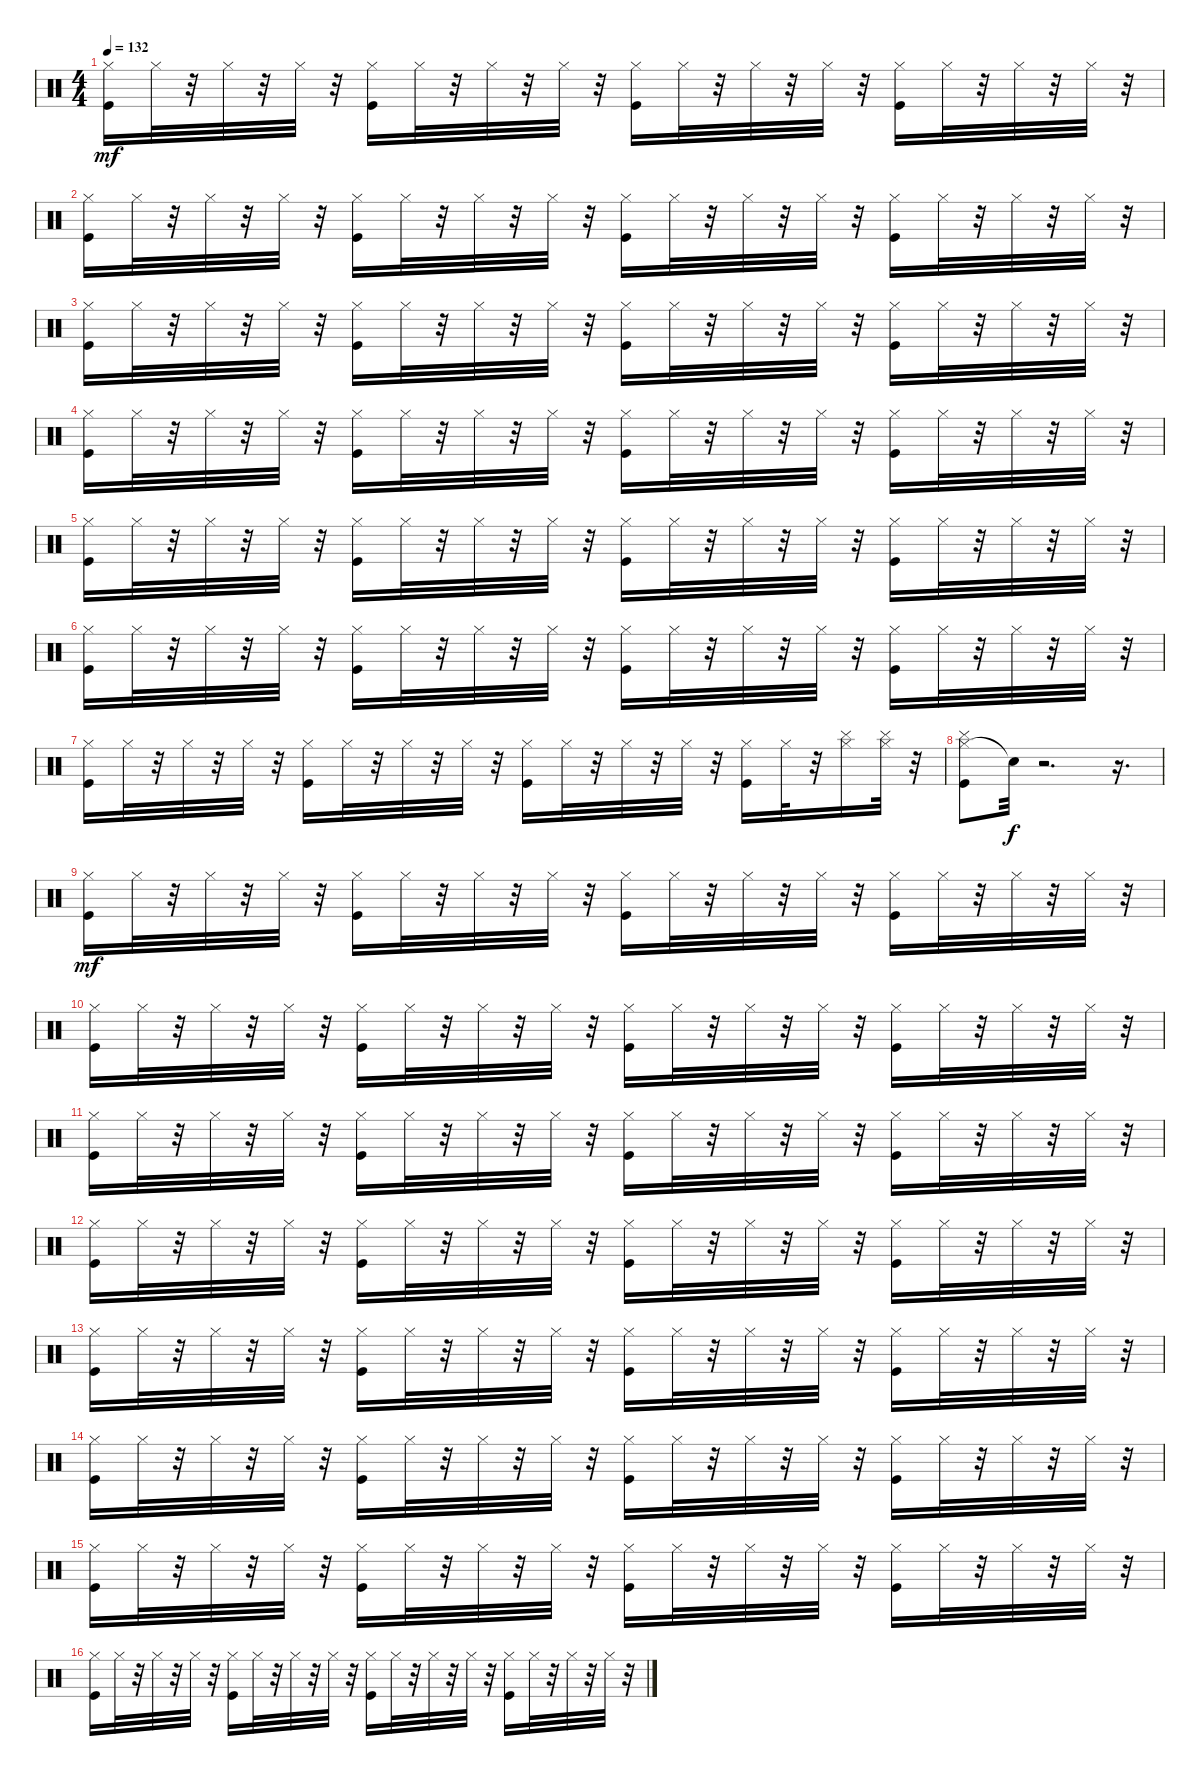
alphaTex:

\track "" {instrument percussion}
\staff {score}
\articulation defaults
\ts (4 4)
\tempo 132
\clef neutral
\ks c
("Hi-Hat (closed)" "Kick (hit)").16{dy mf} "Hi-Hat (closed)".32 r.32 "Hi-Hat (closed)".32 r.32 "Hi-Hat (closed)".32 r.32 ("Hi-Hat (closed)" "Kick (hit)").16 "Hi-Hat (closed)".32 r.32 "Hi-Hat (closed)".32 r.32 "Hi-Hat (closed)".32 r.32 ("Hi-Hat (closed)" "Kick (hit)").16 "Hi-Hat (closed)".32 r.32 "Hi-Hat (closed)".32 r.32 "Hi-Hat (closed)".32 r.32 ("Hi-Hat (closed)" "Kick (hit)").16 "Hi-Hat (closed)".32 r.32 "Hi-Hat (closed)".32 r.32 "Hi-Hat (closed)".32 r.32 |
("Hi-Hat (closed)" "Kick (hit)").16 "Hi-Hat (closed)".32 r.32 "Hi-Hat (closed)".32 r.32 "Hi-Hat (closed)".32 r.32 ("Hi-Hat (closed)" "Kick (hit)").16 "Hi-Hat (closed)".32 r.32 "Hi-Hat (closed)".32 r.32 "Hi-Hat (closed)".32 r.32 ("Hi-Hat (closed)" "Kick (hit)").16 "Hi-Hat (closed)".32 r.32 "Hi-Hat (closed)".32 r.32 "Hi-Hat (closed)".32 r.32 ("Hi-Hat (closed)" "Kick (hit)").16 "Hi-Hat (closed)".32 r.32 "Hi-Hat (closed)".32 r.32 "Hi-Hat (closed)".32 r.32 |
("Hi-Hat (closed)" "Kick (hit)").16 "Hi-Hat (closed)".32 r.32 "Hi-Hat (closed)".32 r.32 "Hi-Hat (closed)".32 r.32 ("Hi-Hat (closed)" "Kick (hit)").16 "Hi-Hat (closed)".32 r.32 "Hi-Hat (closed)".32 r.32 "Hi-Hat (closed)".32 r.32 ("Hi-Hat (closed)" "Kick (hit)").16 "Hi-Hat (closed)".32 r.32 "Hi-Hat (closed)".32 r.32 "Hi-Hat (closed)".32 r.32 ("Hi-Hat (closed)" "Kick (hit)").16 "Hi-Hat (closed)".32 r.32 "Hi-Hat (closed)".32 r.32 "Hi-Hat (closed)".32 r.32 |
("Hi-Hat (closed)" "Kick (hit)").16 "Hi-Hat (closed)".32 r.32 "Hi-Hat (closed)".32 r.32 "Hi-Hat (closed)".32 r.32 ("Hi-Hat (closed)" "Kick (hit)").16 "Hi-Hat (closed)".32 r.32 "Hi-Hat (closed)".32 r.32 "Hi-Hat (closed)".32 r.32 ("Hi-Hat (closed)" "Kick (hit)").16 "Hi-Hat (closed)".32 r.32 "Hi-Hat (closed)".32 r.32 "Hi-Hat (closed)".32 r.32 ("Hi-Hat (closed)" "Kick (hit)").16 "Hi-Hat (closed)".32 r.32 "Hi-Hat (closed)".32 r.32 "Hi-Hat (closed)".32 r.32 |
("Hi-Hat (closed)" "Kick (hit)").16 "Hi-Hat (closed)".32 r.32 "Hi-Hat (closed)".32 r.32 "Hi-Hat (closed)".32 r.32 ("Hi-Hat (closed)" "Kick (hit)").16 "Hi-Hat (closed)".32 r.32 "Hi-Hat (closed)".32 r.32 "Hi-Hat (closed)".32 r.32 ("Hi-Hat (closed)" "Kick (hit)").16 "Hi-Hat (closed)".32 r.32 "Hi-Hat (closed)".32 r.32 "Hi-Hat (closed)".32 r.32 ("Hi-Hat (closed)" "Kick (hit)").16 "Hi-Hat (closed)".32 r.32 "Hi-Hat (closed)".32 r.32 "Hi-Hat (closed)".32 r.32 |
("Hi-Hat (closed)" "Kick (hit)").16 "Hi-Hat (closed)".32 r.32 "Hi-Hat (closed)".32 r.32 "Hi-Hat (closed)".32 r.32 ("Hi-Hat (closed)" "Kick (hit)").16 "Hi-Hat (closed)".32 r.32 "Hi-Hat (closed)".32 r.32 "Hi-Hat (closed)".32 r.32 ("Hi-Hat (closed)" "Kick (hit)").16 "Hi-Hat (closed)".32 r.32 "Hi-Hat (closed)".32 r.32 "Hi-Hat (closed)".32 r.32 ("Hi-Hat (closed)" "Kick (hit)").16 "Hi-Hat (closed)".32 r.32 "Hi-Hat (closed)".32 r.32 "Hi-Hat (closed)".32 r.32 |
("Hi-Hat (closed)" "Kick (hit)").16 "Hi-Hat (closed)".32 r.32 "Hi-Hat (closed)".32 r.32 "Hi-Hat (closed)".32 r.32 ("Hi-Hat (closed)" "Kick (hit)").16 "Hi-Hat (closed)".32 r.32 "Hi-Hat (closed)".32 r.32 "Hi-Hat (closed)".32 r.32 ("Hi-Hat (closed)" "Kick (hit)").16 "Hi-Hat (closed)".32 r.32 "Hi-Hat (closed)".32 r.32 "Hi-Hat (closed)".32 r.32 ("Hi-Hat (closed)" "Kick (hit)").16 "Hi-Hat (closed)".32 r.32 ("Hi-Hat (closed)" "Cymbal (hit)").16 ("Hi-Hat (closed)" "Cymbal (hit)").32 r.32 |
("Hi-Hat (closed)" "Kick (hit)" "Cymbal (hit)").8 "Snare (hit)"{t}.32{dy f} r.2{d} r.16{d} |
("Hi-Hat (closed)" "Kick (hit)").16{dy mf} "Hi-Hat (closed)".32 r.32 "Hi-Hat (closed)".32 r.32 "Hi-Hat (closed)".32 r.32 ("Hi-Hat (closed)" "Kick (hit)").16 "Hi-Hat (closed)".32 r.32 "Hi-Hat (closed)".32 r.32 "Hi-Hat (closed)".32 r.32 ("Hi-Hat (closed)" "Kick (hit)").16 "Hi-Hat (closed)".32 r.32 "Hi-Hat (closed)".32 r.32 "Hi-Hat (closed)".32 r.32 ("Hi-Hat (closed)" "Kick (hit)").16 "Hi-Hat (closed)".32 r.32 "Hi-Hat (closed)".32 r.32 "Hi-Hat (closed)".32 r.32 |
("Hi-Hat (closed)" "Kick (hit)").16 "Hi-Hat (closed)".32 r.32 "Hi-Hat (closed)".32 r.32 "Hi-Hat (closed)".32 r.32 ("Hi-Hat (closed)" "Kick (hit)").16 "Hi-Hat (closed)".32 r.32 "Hi-Hat (closed)".32 r.32 "Hi-Hat (closed)".32 r.32 ("Hi-Hat (closed)" "Kick (hit)").16 "Hi-Hat (closed)".32 r.32 "Hi-Hat (closed)".32 r.32 "Hi-Hat (closed)".32 r.32 ("Hi-Hat (closed)" "Kick (hit)").16 "Hi-Hat (closed)".32 r.32 "Hi-Hat (closed)".32 r.32 "Hi-Hat (closed)".32 r.32 |
("Hi-Hat (closed)" "Kick (hit)").16 "Hi-Hat (closed)".32 r.32 "Hi-Hat (closed)".32 r.32 "Hi-Hat (closed)".32 r.32 ("Hi-Hat (closed)" "Kick (hit)").16 "Hi-Hat (closed)".32 r.32 "Hi-Hat (closed)".32 r.32 "Hi-Hat (closed)".32 r.32 ("Hi-Hat (closed)" "Kick (hit)").16 "Hi-Hat (closed)".32 r.32 "Hi-Hat (closed)".32 r.32 "Hi-Hat (closed)".32 r.32 ("Hi-Hat (closed)" "Kick (hit)").16 "Hi-Hat (closed)".32 r.32 "Hi-Hat (closed)".32 r.32 "Hi-Hat (closed)".32 r.32 |
("Hi-Hat (closed)" "Kick (hit)").16 "Hi-Hat (closed)".32 r.32 "Hi-Hat (closed)".32 r.32 "Hi-Hat (closed)".32 r.32 ("Hi-Hat (closed)" "Kick (hit)").16 "Hi-Hat (closed)".32 r.32 "Hi-Hat (closed)".32 r.32 "Hi-Hat (closed)".32 r.32 ("Hi-Hat (closed)" "Kick (hit)").16 "Hi-Hat (closed)".32 r.32 "Hi-Hat (closed)".32 r.32 "Hi-Hat (closed)".32 r.32 ("Hi-Hat (closed)" "Kick (hit)").16 "Hi-Hat (closed)".32 r.32 "Hi-Hat (closed)".32 r.32 "Hi-Hat (closed)".32 r.32 |
("Hi-Hat (closed)" "Kick (hit)").16 "Hi-Hat (closed)".32 r.32 "Hi-Hat (closed)".32 r.32 "Hi-Hat (closed)".32 r.32 ("Hi-Hat (closed)" "Kick (hit)").16 "Hi-Hat (closed)".32 r.32 "Hi-Hat (closed)".32 r.32 "Hi-Hat (closed)".32 r.32 ("Hi-Hat (closed)" "Kick (hit)").16 "Hi-Hat (closed)".32 r.32 "Hi-Hat (closed)".32 r.32 "Hi-Hat (closed)".32 r.32 ("Hi-Hat (closed)" "Kick (hit)").16 "Hi-Hat (closed)".32 r.32 "Hi-Hat (closed)".32 r.32 "Hi-Hat (closed)".32 r.32 |
("Hi-Hat (closed)" "Kick (hit)").16 "Hi-Hat (closed)".32 r.32 "Hi-Hat (closed)".32 r.32 "Hi-Hat (closed)".32 r.32 ("Hi-Hat (closed)" "Kick (hit)").16 "Hi-Hat (closed)".32 r.32 "Hi-Hat (closed)".32 r.32 "Hi-Hat (closed)".32 r.32 ("Hi-Hat (closed)" "Kick (hit)").16 "Hi-Hat (closed)".32 r.32 "Hi-Hat (closed)".32 r.32 "Hi-Hat (closed)".32 r.32 ("Hi-Hat (closed)" "Kick (hit)").16 "Hi-Hat (closed)".32 r.32 "Hi-Hat (closed)".32 r.32 "Hi-Hat (closed)".32 r.32 |
("Hi-Hat (closed)" "Kick (hit)").16 "Hi-Hat (closed)".32 r.32 "Hi-Hat (closed)".32 r.32 "Hi-Hat (closed)".32 r.32 ("Hi-Hat (closed)" "Kick (hit)").16 "Hi-Hat (closed)".32 r.32 "Hi-Hat (closed)".32 r.32 "Hi-Hat (closed)".32 r.32 ("Hi-Hat (closed)" "Kick (hit)").16 "Hi-Hat (closed)".32 r.32 "Hi-Hat (closed)".32 r.32 "Hi-Hat (closed)".32 r.32 ("Hi-Hat (closed)" "Kick (hit)").16 "Hi-Hat (closed)".32 r.32 "Hi-Hat (closed)".32 r.32 "Hi-Hat (closed)".32 r.32 |
("Hi-Hat (closed)" "Kick (hit)").16 "Hi-Hat (closed)".32 r.32 "Hi-Hat (closed)".32 r.32 "Hi-Hat (closed)".32 r.32 ("Hi-Hat (closed)" "Kick (hit)").16 "Hi-Hat (closed)".32 r.32 "Hi-Hat (closed)".32 r.32 "Hi-Hat (closed)".32 r.32 ("Hi-Hat (closed)" "Kick (hit)").16 "Hi-Hat (closed)".32 r.32 "Hi-Hat (closed)".32 r.32 "Hi-Hat (closed)".32 r.32 ("Hi-Hat (closed)" "Kick (hit)").16 "Hi-Hat (closed)".32 r.32 "Hi-Hat (closed)".32 r.32 "Hi-Hat (closed)".32 r.32
